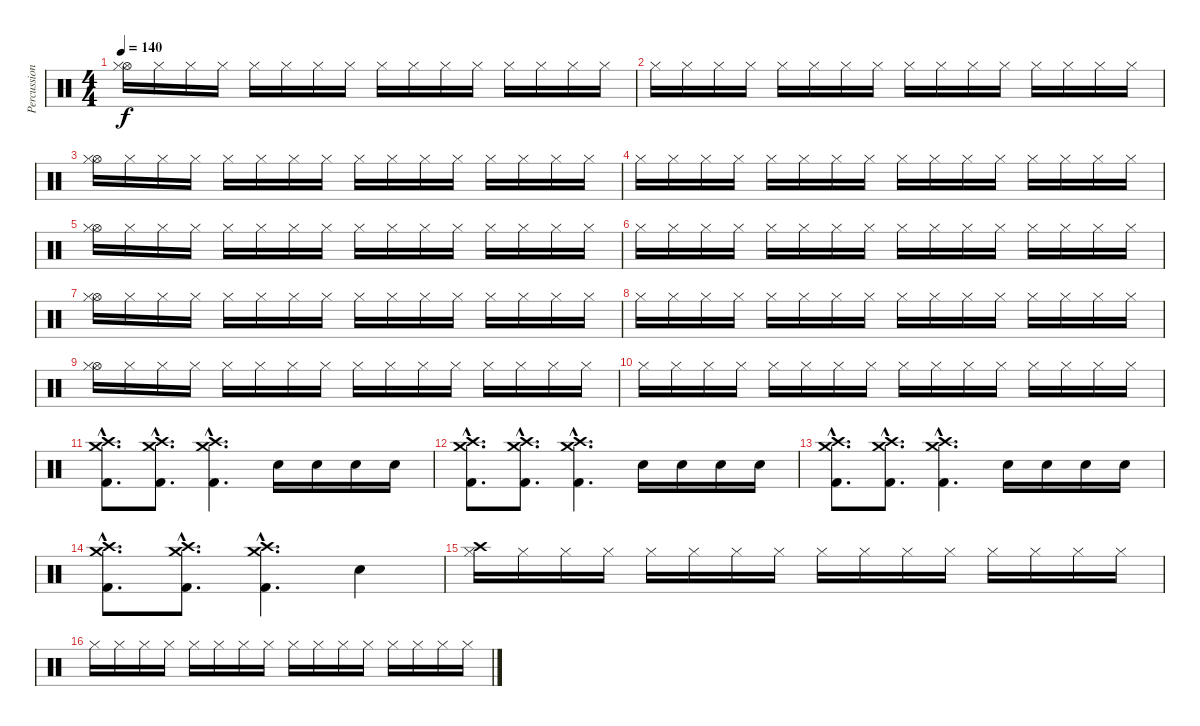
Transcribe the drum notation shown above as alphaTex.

\track ("Percussion" "Percussion") {instrument percussion}
\staff {score}
\articulation defaults
\ts (4 4)
\tempo 140
\clef neutral
\ks c
("Hi-Hat (open)" "Hi-Hat (closed)").16{dy f} "Hi-Hat (closed)".16 "Hi-Hat (closed)".16 "Hi-Hat (closed)".16 "Hi-Hat (closed)".16 "Hi-Hat (closed)".16 "Hi-Hat (closed)".16 "Hi-Hat (closed)".16 "Hi-Hat (closed)".16 "Hi-Hat (closed)".16 "Hi-Hat (closed)".16 "Hi-Hat (closed)".16 "Hi-Hat (closed)".16 "Hi-Hat (closed)".16 "Hi-Hat (closed)".16 "Hi-Hat (closed)".16 |
"Hi-Hat (closed)".16 "Hi-Hat (closed)".16 "Hi-Hat (closed)".16 "Hi-Hat (closed)".16 "Hi-Hat (closed)".16 "Hi-Hat (closed)".16 "Hi-Hat (closed)".16 "Hi-Hat (closed)".16 "Hi-Hat (closed)".16 "Hi-Hat (closed)".16 "Hi-Hat (closed)".16 "Hi-Hat (closed)".16 "Hi-Hat (closed)".16 "Hi-Hat (closed)".16 "Hi-Hat (closed)".16 "Hi-Hat (closed)".16 |
("Hi-Hat (open)" "Hi-Hat (closed)").16 "Hi-Hat (closed)".16 "Hi-Hat (closed)".16 "Hi-Hat (closed)".16 "Hi-Hat (closed)".16 "Hi-Hat (closed)".16 "Hi-Hat (closed)".16 "Hi-Hat (closed)".16 "Hi-Hat (closed)".16 "Hi-Hat (closed)".16 "Hi-Hat (closed)".16 "Hi-Hat (closed)".16 "Hi-Hat (closed)".16 "Hi-Hat (closed)".16 "Hi-Hat (closed)".16 "Hi-Hat (closed)".16 |
"Hi-Hat (closed)".16 "Hi-Hat (closed)".16 "Hi-Hat (closed)".16 "Hi-Hat (closed)".16 "Hi-Hat (closed)".16 "Hi-Hat (closed)".16 "Hi-Hat (closed)".16 "Hi-Hat (closed)".16 "Hi-Hat (closed)".16 "Hi-Hat (closed)".16 "Hi-Hat (closed)".16 "Hi-Hat (closed)".16 "Hi-Hat (closed)".16 "Hi-Hat (closed)".16 "Hi-Hat (closed)".16 "Hi-Hat (closed)".16 |
("Hi-Hat (open)" "Hi-Hat (closed)").16 "Hi-Hat (closed)".16 "Hi-Hat (closed)".16 "Hi-Hat (closed)".16 "Hi-Hat (closed)".16 "Hi-Hat (closed)".16 "Hi-Hat (closed)".16 "Hi-Hat (closed)".16 "Hi-Hat (closed)".16 "Hi-Hat (closed)".16 "Hi-Hat (closed)".16 "Hi-Hat (closed)".16 "Hi-Hat (closed)".16 "Hi-Hat (closed)".16 "Hi-Hat (closed)".16 "Hi-Hat (closed)".16 |
"Hi-Hat (closed)".16 "Hi-Hat (closed)".16 "Hi-Hat (closed)".16 "Hi-Hat (closed)".16 "Hi-Hat (closed)".16 "Hi-Hat (closed)".16 "Hi-Hat (closed)".16 "Hi-Hat (closed)".16 "Hi-Hat (closed)".16 "Hi-Hat (closed)".16 "Hi-Hat (closed)".16 "Hi-Hat (closed)".16 "Hi-Hat (closed)".16 "Hi-Hat (closed)".16 "Hi-Hat (closed)".16 "Hi-Hat (closed)".16 |
("Hi-Hat (open)" "Hi-Hat (closed)").16 "Hi-Hat (closed)".16 "Hi-Hat (closed)".16 "Hi-Hat (closed)".16 "Hi-Hat (closed)".16 "Hi-Hat (closed)".16 "Hi-Hat (closed)".16 "Hi-Hat (closed)".16 "Hi-Hat (closed)".16 "Hi-Hat (closed)".16 "Hi-Hat (closed)".16 "Hi-Hat (closed)".16 "Hi-Hat (closed)".16 "Hi-Hat (closed)".16 "Hi-Hat (closed)".16 "Hi-Hat (closed)".16 |
"Hi-Hat (closed)".16 "Hi-Hat (closed)".16 "Hi-Hat (closed)".16 "Hi-Hat (closed)".16 "Hi-Hat (closed)".16 "Hi-Hat (closed)".16 "Hi-Hat (closed)".16 "Hi-Hat (closed)".16 "Hi-Hat (closed)".16 "Hi-Hat (closed)".16 "Hi-Hat (closed)".16 "Hi-Hat (closed)".16 "Hi-Hat (closed)".16 "Hi-Hat (closed)".16 "Hi-Hat (closed)".16 "Hi-Hat (closed)".16 |
("Hi-Hat (open)" "Hi-Hat (closed)").16 "Hi-Hat (closed)".16 "Hi-Hat (closed)".16 "Hi-Hat (closed)".16 "Hi-Hat (closed)".16 "Hi-Hat (closed)".16 "Hi-Hat (closed)".16 "Hi-Hat (closed)".16 "Hi-Hat (closed)".16 "Hi-Hat (closed)".16 "Hi-Hat (closed)".16 "Hi-Hat (closed)".16 "Hi-Hat (closed)".16 "Hi-Hat (closed)".16 "Hi-Hat (closed)".16 "Hi-Hat (closed)".16 |
"Hi-Hat (closed)".16 "Hi-Hat (closed)".16 "Hi-Hat (closed)".16 "Hi-Hat (closed)".16 "Hi-Hat (closed)".16 "Hi-Hat (closed)".16 "Hi-Hat (closed)".16 "Hi-Hat (closed)".16 "Hi-Hat (closed)".16 "Hi-Hat (closed)".16 "Hi-Hat (closed)".16 "Hi-Hat (closed)".16 "Hi-Hat (closed)".16 "Hi-Hat (closed)".16 "Hi-Hat (closed)".16 "Hi-Hat (closed)".16 |
("Crash medium (hit)"{hac} "Crash high (hit)"{hac} "Kick (hit) 2"{hac}).8{d} ("Crash medium (hit)"{hac} "Crash high (hit)"{hac} "Kick (hit) 2"{hac}).8{d} ("Crash medium (hit)"{hac} "Crash high (hit)"{hac} "Kick (hit) 2"{hac}).4{d} "Electric Snare (hit)".16 "Electric Snare (hit)".16 "Electric Snare (hit)".16 "Electric Snare (hit)".16 |
("Crash medium (hit)"{hac} "Crash high (hit)"{hac} "Kick (hit) 2"{hac}).8{d} ("Crash medium (hit)"{hac} "Crash high (hit)"{hac} "Kick (hit) 2"{hac}).8{d} ("Crash medium (hit)"{hac} "Crash high (hit)"{hac} "Kick (hit) 2"{hac}).4{d} "Electric Snare (hit)".16 "Electric Snare (hit)".16 "Electric Snare (hit)".16 "Electric Snare (hit)".16 |
("Crash medium (hit)"{hac} "Crash high (hit)"{hac} "Kick (hit) 2"{hac}).8{d} ("Crash medium (hit)"{hac} "Crash high (hit)"{hac} "Kick (hit) 2"{hac}).8{d} ("Crash medium (hit)"{hac} "Crash high (hit)"{hac} "Kick (hit) 2"{hac}).4{d} "Electric Snare (hit)".16 "Electric Snare (hit)".16 "Electric Snare (hit)".16 "Electric Snare (hit)".16 |
("Crash medium (hit)"{hac} "Crash high (hit)"{hac} "Kick (hit) 2"{hac}).8{d} ("Crash medium (hit)"{hac} "Crash high (hit)"{hac} "Kick (hit) 2"{hac}).8{d} ("Crash medium (hit)"{hac} "Crash high (hit)"{hac} "Kick (hit) 2"{hac}).4{d} "Electric Snare (hit)".4 |
("Crash high (hit)" "Hi-Hat (closed)").16{volume 7} "Hi-Hat (closed)".16 "Hi-Hat (closed)".16 "Hi-Hat (closed)".16 "Hi-Hat (closed)".16 "Hi-Hat (closed)".16 "Hi-Hat (closed)".16 "Hi-Hat (closed)".16 "Hi-Hat (closed)".16 "Hi-Hat (closed)".16 "Hi-Hat (closed)".16 "Hi-Hat (closed)".16 "Hi-Hat (closed)".16 "Hi-Hat (closed)".16 "Hi-Hat (closed)".16 "Hi-Hat (closed)".16 |
"Hi-Hat (closed)".16 "Hi-Hat (closed)".16 "Hi-Hat (closed)".16 "Hi-Hat (closed)".16 "Hi-Hat (closed)".16 "Hi-Hat (closed)".16 "Hi-Hat (closed)".16 "Hi-Hat (closed)".16 "Hi-Hat (closed)".16 "Hi-Hat (closed)".16 "Hi-Hat (closed)".16 "Hi-Hat (closed)".16 "Hi-Hat (closed)".16 "Hi-Hat (closed)".16 "Hi-Hat (closed)".16 "Hi-Hat (closed)".16
